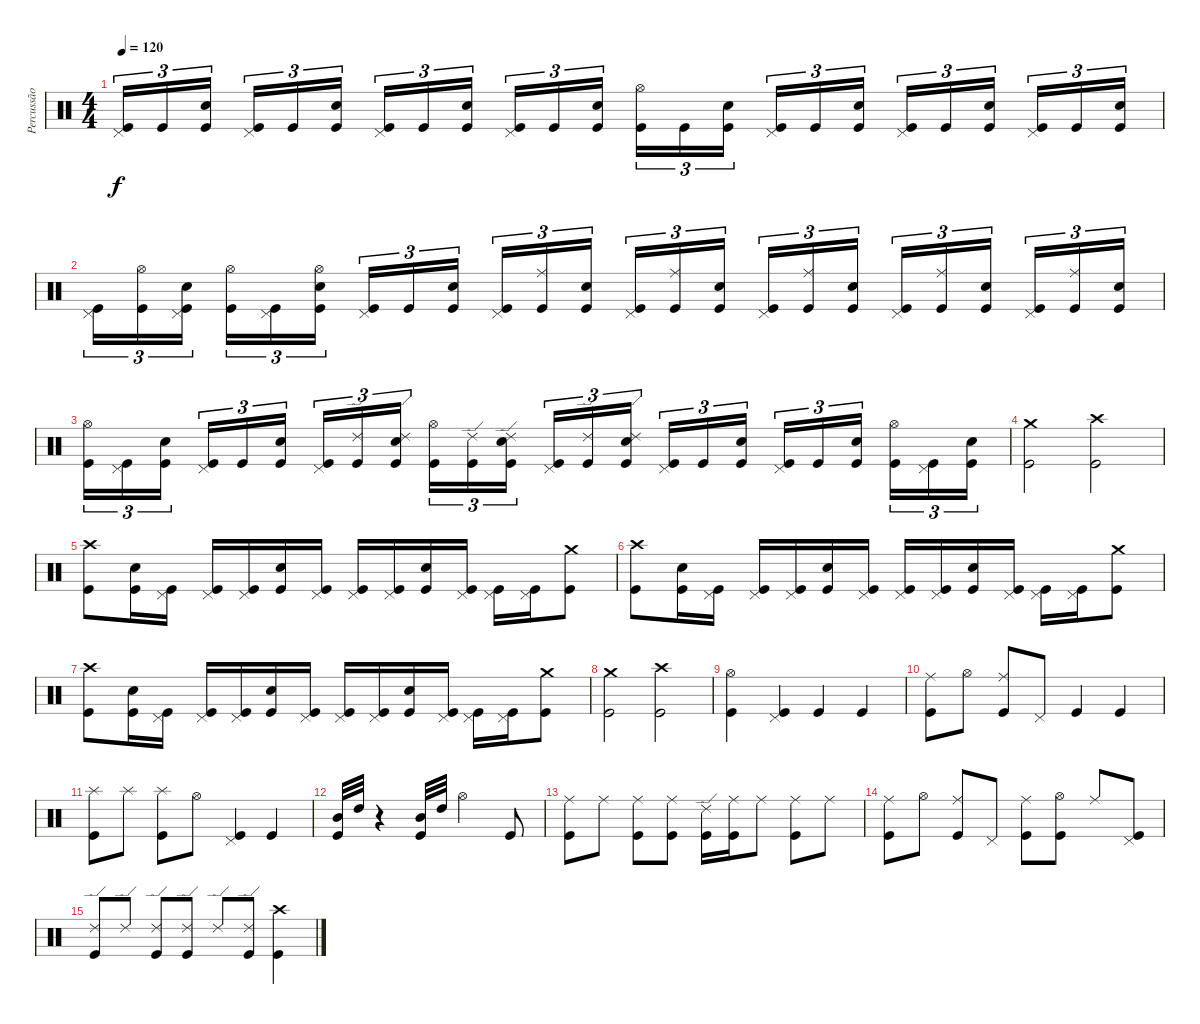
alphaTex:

\track ("Percussão" "Percussão") {instrument percussion}
\staff {score}
\articulation defaults
\ts (4 4)
\tempo 120
\clef neutral
\ks c
("Kick (hit)" "Pedal Hi-Hat (hit)").16{tu (3 2) dy f} "Kick (hit)".16{tu (3 2)} ("Kick (hit)" "Snare (hit) 2").16{tu (3 2)} ("Kick (hit)" "Pedal Hi-Hat (hit)").16{tu (3 2)} "Kick (hit)".16{tu (3 2)} ("Kick (hit)" "Snare (hit) 2").16{tu (3 2)} ("Kick (hit)" "Pedal Hi-Hat (hit)").16{tu (3 2)} "Kick (hit)".16{tu (3 2)} ("Kick (hit)" "Snare (hit) 2").16{tu (3 2)} ("Kick (hit)" "Pedal Hi-Hat (hit)").16{tu (3 2)} "Kick (hit)".16{tu (3 2)} ("Kick (hit)" "Snare (hit) 2").16{tu (3 2)} ("Kick (hit)" "Hi-Hat (open)").16{tu (3 2)} "Kick (hit)".16{tu (3 2)} ("Kick (hit)" "Snare (hit) 2").16{tu (3 2)} ("Kick (hit)" "Pedal Hi-Hat (hit)").16{tu (3 2)} "Kick (hit)".16{tu (3 2)} ("Kick (hit)" "Snare (hit) 2").16{tu (3 2)} ("Kick (hit)" "Pedal Hi-Hat (hit)").16{tu (3 2)} "Kick (hit)".16{tu (3 2)} ("Kick (hit)" "Snare (hit) 2").16{tu (3 2)} ("Kick (hit)" "Pedal Hi-Hat (hit)").16{tu (3 2)} "Kick (hit)".16{tu (3 2)} ("Kick (hit)" "Snare (hit) 2").16{tu (3 2)} |
("Kick (hit)" "Pedal Hi-Hat (hit)").16{tu (3 2)} ("Kick (hit)" "Hi-Hat (open)").16{tu (3 2)} ("Kick (hit)" "Snare (hit) 2" "Pedal Hi-Hat (hit)").16{tu (3 2)} ("Kick (hit)" "Hi-Hat (open)").16{tu (3 2)} ("Kick (hit)" "Pedal Hi-Hat (hit)").16{tu (3 2)} ("Kick (hit)" "Snare (hit) 2" "Hi-Hat (open)").16{tu (3 2)} ("Kick (hit)" "Pedal Hi-Hat (hit)").16{tu (3 2)} "Kick (hit)".16{tu (3 2)} ("Kick (hit)" "Snare (hit) 2").16{tu (3 2)} ("Kick (hit)" "Pedal Hi-Hat (hit)").16{tu (3 2)} ("Kick (hit)" "Ride (middle)").16{tu (3 2)} ("Kick (hit)" "Snare (hit) 2").16{tu (3 2)} ("Kick (hit)" "Pedal Hi-Hat (hit)").16{tu (3 2)} ("Kick (hit)" "Ride (middle)").16{tu (3 2)} ("Kick (hit)" "Snare (hit) 2").16{tu (3 2)} ("Kick (hit)" "Pedal Hi-Hat (hit)").16{tu (3 2)} ("Kick (hit)" "Ride (middle)").16{tu (3 2)} ("Kick (hit)" "Snare (hit) 2").16{tu (3 2)} ("Kick (hit)" "Pedal Hi-Hat (hit)").16{tu (3 2)} ("Kick (hit)" "Ride (middle)").16{tu (3 2)} ("Kick (hit)" "Snare (hit) 2").16{tu (3 2)} ("Kick (hit)" "Pedal Hi-Hat (hit)").16{tu (3 2)} ("Kick (hit)" "Ride (middle)").16{tu (3 2)} ("Kick (hit)" "Snare (hit) 2").16{tu (3 2)} |
("Kick (hit)" "Hi-Hat (open)").16{tu (3 2)} ("Kick (hit)" "Pedal Hi-Hat (hit)").16{tu (3 2)} ("Kick (hit)" "Snare (hit) 2").16{tu (3 2)} ("Kick (hit)" "Pedal Hi-Hat (hit)").16{tu (3 2)} "Kick (hit)".16{tu (3 2)} ("Kick (hit)" "Snare (hit) 2").16{tu (3 2)} ("Kick (hit)" "Pedal Hi-Hat (hit)").16{tu (3 2)} ("Kick (hit)" "Ride (edge) 2").16{tu (3 2)} ("Kick (hit)" "Snare (hit) 2" "Ride (edge) 2").16{tu (3 2)} ("Kick (hit)" "Hi-Hat (open)").16{tu (3 2)} ("Kick (hit)" "Ride (edge) 2").16{tu (3 2)} ("Kick (hit)" "Snare (hit) 2" "Ride (edge) 2").16{tu (3 2)} ("Kick (hit)" "Pedal Hi-Hat (hit)").16{tu (3 2)} ("Kick (hit)" "Ride (edge) 2").16{tu (3 2)} ("Kick (hit)" "Snare (hit) 2" "Ride (edge) 2").16{tu (3 2)} ("Kick (hit)" "Pedal Hi-Hat (hit)").16{tu (3 2)} "Kick (hit)".16{tu (3 2)} ("Kick (hit)" "Snare (hit) 2").16{tu (3 2)} ("Kick (hit)" "Pedal Hi-Hat (hit)").16{tu (3 2)} "Kick (hit)".16{tu (3 2)} ("Kick (hit)" "Snare (hit) 2").16{tu (3 2)} ("Kick (hit)" "Hi-Hat (open)").16{tu (3 2)} ("Kick (hit)" "Pedal Hi-Hat (hit)").16{tu (3 2)} ("Kick (hit)" "Snare (hit) 2").16{tu (3 2)} |
("Kick (hit)" "Crash medium (hit)").2 ("Kick (hit)" "Crash high (hit)").2 |
("Kick (hit)" "Crash high (hit)").8 ("Kick (hit)" "Snare (hit) 2").16 ("Kick (hit)" "Pedal Hi-Hat (hit)").16 ("Kick (hit)" "Pedal Hi-Hat (hit)").16 ("Kick (hit)" "Pedal Hi-Hat (hit)").16 ("Kick (hit)" "Snare (hit) 2").16 ("Kick (hit)" "Pedal Hi-Hat (hit)").16 ("Kick (hit)" "Pedal Hi-Hat (hit)").16 ("Kick (hit)" "Pedal Hi-Hat (hit)").16 ("Kick (hit)" "Snare (hit) 2").16 ("Kick (hit)" "Pedal Hi-Hat (hit)").16 ("Kick (hit)" "Pedal Hi-Hat (hit)").16 ("Kick (hit)" "Pedal Hi-Hat (hit)").16 ("Kick (hit)" "Crash medium (hit)").8 |
("Kick (hit)" "Crash high (hit)").8 ("Kick (hit)" "Snare (hit) 2").16 ("Kick (hit)" "Pedal Hi-Hat (hit)").16 ("Kick (hit)" "Pedal Hi-Hat (hit)").16 ("Kick (hit)" "Pedal Hi-Hat (hit)").16 ("Kick (hit)" "Snare (hit) 2").16 ("Kick (hit)" "Pedal Hi-Hat (hit)").16 ("Kick (hit)" "Pedal Hi-Hat (hit)").16 ("Kick (hit)" "Pedal Hi-Hat (hit)").16 ("Kick (hit)" "Snare (hit) 2").16 ("Kick (hit)" "Pedal Hi-Hat (hit)").16 ("Kick (hit)" "Pedal Hi-Hat (hit)").16 ("Kick (hit)" "Pedal Hi-Hat (hit)").16 ("Kick (hit)" "Crash medium (hit)").8 |
("Kick (hit)" "Crash high (hit)").8 ("Kick (hit)" "Snare (hit) 2").16 ("Kick (hit)" "Pedal Hi-Hat (hit)").16 ("Kick (hit)" "Pedal Hi-Hat (hit)").16 ("Kick (hit)" "Pedal Hi-Hat (hit)").16 ("Kick (hit)" "Snare (hit) 2").16 ("Kick (hit)" "Pedal Hi-Hat (hit)").16 ("Kick (hit)" "Pedal Hi-Hat (hit)").16 ("Kick (hit)" "Pedal Hi-Hat (hit)").16 ("Kick (hit)" "Snare (hit) 2").16 ("Kick (hit)" "Pedal Hi-Hat (hit)").16 ("Kick (hit)" "Pedal Hi-Hat (hit)").16 ("Kick (hit)" "Pedal Hi-Hat (hit)").16 ("Kick (hit)" "Crash medium (hit)").8 |
("Kick (hit)" "Crash medium (hit)").2 ("Kick (hit)" "Crash high (hit)").2 |
("Kick (hit)" "Hi-Hat (open)").4 ("Kick (hit)" "Pedal Hi-Hat (hit)").4 "Kick (hit)".4 "Kick (hit)".4 |
("Kick (hit)" "Ride (middle)").8 "Hi-Hat (open)".8 ("Kick (hit)" "Ride (middle)").8 "Pedal Hi-Hat (hit)".8 "Kick (hit)".4 "Kick (hit)".4 |
("Kick (hit)" "Splash (hit)").8 "Splash (hit)".8 ("Kick (hit)" "Splash (hit)").8 "Hi-Hat (open)".8 ("Kick (hit)" "Pedal Hi-Hat (hit)").4 "Kick (hit)".4 |
("Kick (hit)" "Mid Tom (hit)").32 "High Tom (hit)".32 r.4 ("Kick (hit)" "Mid Tom (hit)").32 "High Tom (hit)".32 "Hi-Hat (open)".2 "Kick (hit)".8 |
("Kick (hit)" "Ride (middle)").8 "Ride (middle)".8 ("Kick (hit)" "Ride (middle)").8 ("Kick (hit)" "Ride (middle)").8 ("Kick (hit)" "Ride (edge) 2").16 ("Kick (hit)" "Ride (middle)").16 "Ride (middle)".8 ("Kick (hit)" "Ride (middle)").8 "Ride (middle)".8 |
("Kick (hit)" "Ride (middle)").8 "Hi-Hat (open)".8 ("Kick (hit)" "Ride (middle)").8 "Pedal Hi-Hat (hit)".8 ("Kick (hit)" "Ride (middle)").8 ("Kick (hit)" "Hi-Hat (open)").8 "Ride (middle)".8 ("Kick (hit)" "Pedal Hi-Hat (hit)").8 |
("Kick (hit)" "Ride (edge) 2").8 "Ride (edge) 2".8 ("Kick (hit)" "Ride (edge) 2").8 ("Kick (hit)" "Ride (edge) 2").8 "Ride (edge) 2".8 ("Kick (hit)" "Ride (edge) 2").8 ("Kick (hit)" "Crash high (hit)").4
